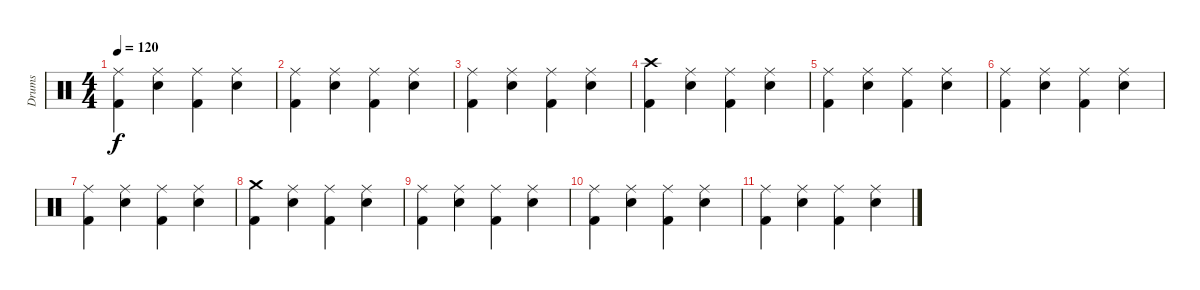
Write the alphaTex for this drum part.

\track ("Drums" "Drums") {instrument percussion}
\staff {score}
\articulation defaults
\ts (4 4)
\tempo 120
\clef neutral
\ks c
("Ride (middle)" "Kick (hit) 2").4{dy f} ("Ride (middle)" "Electric Snare (hit)").4 ("Ride (middle)" "Kick (hit) 2").4 ("Ride (middle)" "Electric Snare (hit)").4 |
("Ride (middle)" "Kick (hit) 2").4 ("Ride (middle)" "Electric Snare (hit)").4 ("Ride (middle)" "Kick (hit) 2").4 ("Ride (middle)" "Electric Snare (hit)").4 |
("Ride (middle)" "Kick (hit) 2").4 ("Ride (middle)" "Electric Snare (hit)").4 ("Ride (middle)" "Kick (hit) 2").4 ("Ride (middle)" "Electric Snare (hit)").4 |
("Crash high (hit)" "Kick (hit) 2").4 ("Ride (middle)" "Electric Snare (hit)").4 ("Ride (middle)" "Kick (hit) 2").4 ("Ride (middle)" "Electric Snare (hit)").4 |
("Ride (middle)" "Kick (hit) 2").4 ("Ride (middle)" "Electric Snare (hit)").4 ("Ride (middle)" "Kick (hit) 2").4 ("Ride (middle)" "Electric Snare (hit)").4 |
("Ride (middle)" "Kick (hit) 2").4 ("Ride (middle)" "Electric Snare (hit)").4 ("Ride (middle)" "Kick (hit) 2").4 ("Ride (middle)" "Electric Snare (hit)").4 |
("Ride (middle)" "Kick (hit) 2").4 ("Ride (middle)" "Electric Snare (hit)").4 ("Ride (middle)" "Kick (hit) 2").4 ("Ride (middle)" "Electric Snare (hit)").4 |
("Crash medium (hit)" "Kick (hit) 2").4 ("Ride (middle)" "Electric Snare (hit)").4 ("Ride (middle)" "Kick (hit) 2").4 ("Ride (middle)" "Electric Snare (hit)").4 |
("Ride (middle)" "Kick (hit) 2").4 ("Ride (middle)" "Electric Snare (hit)").4 ("Ride (middle)" "Kick (hit) 2").4 ("Ride (middle)" "Electric Snare (hit)").4 |
("Ride (middle)" "Kick (hit) 2").4 ("Ride (middle)" "Electric Snare (hit)").4 ("Ride (middle)" "Kick (hit) 2").4 ("Ride (middle)" "Electric Snare (hit)").4 |
("Ride (middle)" "Kick (hit) 2").4 ("Ride (middle)" "Electric Snare (hit)").4 ("Ride (middle)" "Kick (hit) 2").4 ("Ride (middle)" "Electric Snare (hit)").4
